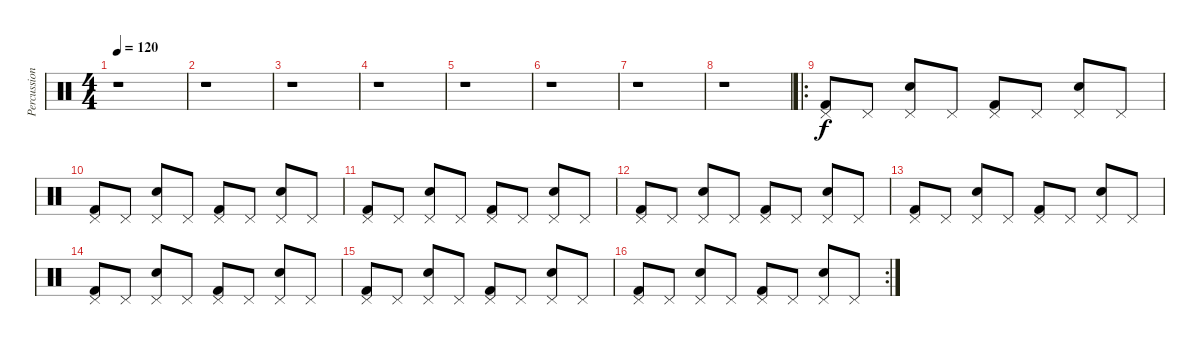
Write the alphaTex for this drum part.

\track ("Percussion" "Percussion") {instrument percussion}
\staff {score}
\articulation defaults
\ts (4 4)
\tempo 120
\clef neutral
\ks c
r.1{dy f} |
r.1 |
r.1 |
r.1 |
r.1 |
r.1 |
r.1 |
r.1 |
\ro
("Pedal Hi-Hat (hit)" "Kick (hit) 2").8 "Pedal Hi-Hat (hit)".8 ("Pedal Hi-Hat (hit)" "Snare (hit) 2").8 "Pedal Hi-Hat (hit)".8 ("Pedal Hi-Hat (hit)" "Kick (hit) 2").8 "Pedal Hi-Hat (hit)".8 ("Pedal Hi-Hat (hit)" "Snare (hit) 2").8 "Pedal Hi-Hat (hit)".8 |
("Pedal Hi-Hat (hit)" "Kick (hit) 2").8 "Pedal Hi-Hat (hit)".8 ("Pedal Hi-Hat (hit)" "Snare (hit) 2").8 "Pedal Hi-Hat (hit)".8 ("Pedal Hi-Hat (hit)" "Kick (hit) 2").8 "Pedal Hi-Hat (hit)".8 ("Pedal Hi-Hat (hit)" "Snare (hit) 2").8 "Pedal Hi-Hat (hit)".8 |
("Pedal Hi-Hat (hit)" "Kick (hit) 2").8 "Pedal Hi-Hat (hit)".8 ("Pedal Hi-Hat (hit)" "Snare (hit) 2").8 "Pedal Hi-Hat (hit)".8 ("Pedal Hi-Hat (hit)" "Kick (hit) 2").8 "Pedal Hi-Hat (hit)".8 ("Pedal Hi-Hat (hit)" "Snare (hit) 2").8 "Pedal Hi-Hat (hit)".8 |
("Pedal Hi-Hat (hit)" "Kick (hit) 2").8 "Pedal Hi-Hat (hit)".8 ("Pedal Hi-Hat (hit)" "Snare (hit) 2").8 "Pedal Hi-Hat (hit)".8 ("Pedal Hi-Hat (hit)" "Kick (hit) 2").8 "Pedal Hi-Hat (hit)".8 ("Pedal Hi-Hat (hit)" "Snare (hit) 2").8 "Pedal Hi-Hat (hit)".8 |
("Pedal Hi-Hat (hit)" "Kick (hit) 2").8 "Pedal Hi-Hat (hit)".8 ("Pedal Hi-Hat (hit)" "Snare (hit) 2").8 "Pedal Hi-Hat (hit)".8 ("Pedal Hi-Hat (hit)" "Kick (hit) 2").8 "Pedal Hi-Hat (hit)".8 ("Pedal Hi-Hat (hit)" "Snare (hit) 2").8 "Pedal Hi-Hat (hit)".8 |
("Pedal Hi-Hat (hit)" "Kick (hit) 2").8 "Pedal Hi-Hat (hit)".8 ("Pedal Hi-Hat (hit)" "Snare (hit) 2").8 "Pedal Hi-Hat (hit)".8 ("Pedal Hi-Hat (hit)" "Kick (hit) 2").8 "Pedal Hi-Hat (hit)".8 ("Pedal Hi-Hat (hit)" "Snare (hit) 2").8 "Pedal Hi-Hat (hit)".8 |
("Pedal Hi-Hat (hit)" "Kick (hit) 2").8 "Pedal Hi-Hat (hit)".8 ("Pedal Hi-Hat (hit)" "Snare (hit) 2").8 "Pedal Hi-Hat (hit)".8 ("Pedal Hi-Hat (hit)" "Kick (hit) 2").8 "Pedal Hi-Hat (hit)".8 ("Pedal Hi-Hat (hit)" "Snare (hit) 2").8 "Pedal Hi-Hat (hit)".8 |
\rc 2
("Pedal Hi-Hat (hit)" "Kick (hit) 2").8 "Pedal Hi-Hat (hit)".8 ("Pedal Hi-Hat (hit)" "Snare (hit) 2").8 "Pedal Hi-Hat (hit)".8 ("Pedal Hi-Hat (hit)" "Kick (hit) 2").8 "Pedal Hi-Hat (hit)".8 ("Pedal Hi-Hat (hit)" "Snare (hit) 2").8 "Pedal Hi-Hat (hit)".8
